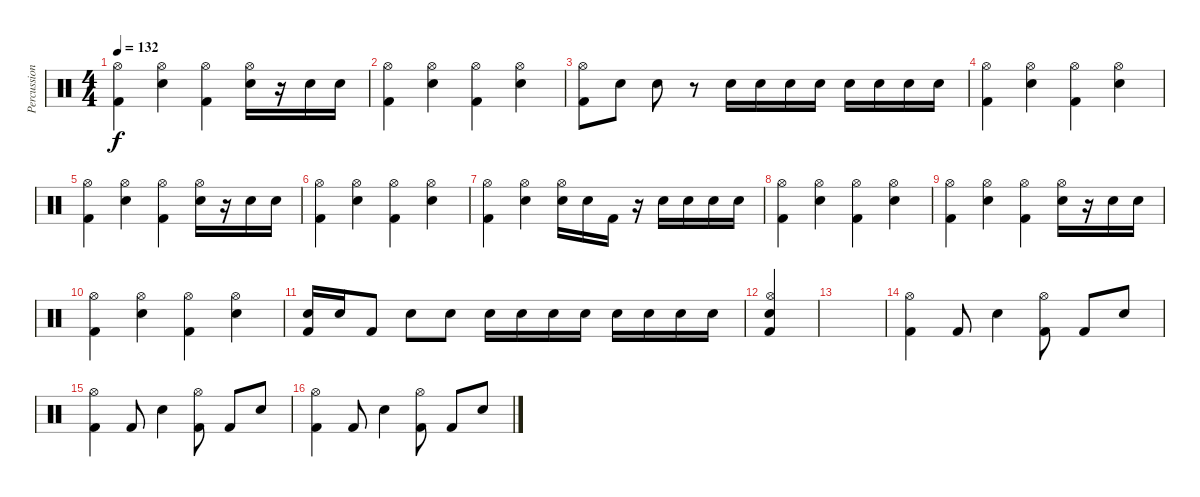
\track ("Percussion" "Percussion") {instrument percussion}
\staff {score}
\articulation defaults
\ts (4 4)
\tempo 132
\clef neutral
\ks c
("Kick (hit) 2" "Hi-Hat (open)").4{dy f} ("Hi-Hat (open)" "Snare (hit) 2").4 ("Kick (hit) 2" "Hi-Hat (open)").4 ("Electric Snare (hit)" "Hi-Hat (open)").16 r.16 "Electric Snare (hit)".16 "Electric Snare (hit)".16 |
("Kick (hit) 2" "Hi-Hat (open)").4 ("Hi-Hat (open)" "Snare (hit) 2").4 ("Kick (hit) 2" "Hi-Hat (open)").4 ("Hi-Hat (open)" "Snare (hit) 2").4 |
("Kick (hit) 2" "Hi-Hat (open)").8 "Snare (hit) 2".8 "Snare (hit) 2".8 r.8 "Electric Snare (hit)".16 "Electric Snare (hit)".16 "Electric Snare (hit)".16 "Electric Snare (hit)".16 "Electric Snare (hit)".16 "Electric Snare (hit)".16 "Electric Snare (hit)".16 "Electric Snare (hit)".16 |
("Kick (hit) 2" "Hi-Hat (open)").4 ("Hi-Hat (open)" "Snare (hit) 2").4 ("Kick (hit) 2" "Hi-Hat (open)").4 ("Hi-Hat (open)" "Snare (hit) 2").4 |
("Kick (hit) 2" "Hi-Hat (open)").4 ("Hi-Hat (open)" "Snare (hit) 2").4 ("Kick (hit) 2" "Hi-Hat (open)").4 ("Electric Snare (hit)" "Hi-Hat (open)").16 r.16 "Electric Snare (hit)".16 "Electric Snare (hit)".16 |
("Kick (hit) 2" "Hi-Hat (open)").4 ("Hi-Hat (open)" "Snare (hit) 2").4 ("Kick (hit) 2" "Hi-Hat (open)").4 ("Hi-Hat (open)" "Snare (hit) 2").4 |
("Kick (hit) 2" "Hi-Hat (open)").4 ("Hi-Hat (open)" "Snare (hit) 2").4 ("Snare (hit) 2" "Hi-Hat (open)").16 "Snare (hit) 2".16 "Kick (hit) 2".16 r.16 "Electric Snare (hit)".16 "Electric Snare (hit)".16 "Electric Snare (hit)".16 "Electric Snare (hit)".16 |
("Kick (hit) 2" "Hi-Hat (open)").4 ("Hi-Hat (open)" "Snare (hit) 2").4 ("Kick (hit) 2" "Hi-Hat (open)").4 ("Hi-Hat (open)" "Snare (hit) 2").4 |
("Kick (hit) 2" "Hi-Hat (open)").4 ("Hi-Hat (open)" "Snare (hit) 2").4 ("Kick (hit) 2" "Hi-Hat (open)").4 ("Electric Snare (hit)" "Hi-Hat (open)").16 r.16 "Electric Snare (hit)".16 "Electric Snare (hit)".16 |
("Kick (hit) 2" "Hi-Hat (open)").4 ("Hi-Hat (open)" "Snare (hit) 2").4 ("Kick (hit) 2" "Hi-Hat (open)").4 ("Hi-Hat (open)" "Snare (hit) 2").4 |
("Snare (hit) 2" "Kick (hit) 2").16 "Snare (hit) 2".16 "Kick (hit) 2".8 "Snare (hit) 2".8 "Snare (hit) 2".8 "Electric Snare (hit)".16 "Electric Snare (hit)".16 "Electric Snare (hit)".16 "Electric Snare (hit)".16 "Electric Snare (hit)".16 "Electric Snare (hit)".16 "Electric Snare (hit)".16 "Electric Snare (hit)".16 |
("Electric Snare (hit)" "Hi-Hat (open)" "Kick (hit) 2").4 |
|
("Kick (hit) 2" "Hi-Hat (open)").4 "Kick (hit) 2".8 "Snare (hit) 2".4 ("Kick (hit) 2" "Hi-Hat (open)").8 "Kick (hit) 2".8 "Snare (hit) 2".8 |
("Kick (hit) 2" "Hi-Hat (open)").4 "Kick (hit) 2".8 "Snare (hit) 2".4 ("Kick (hit) 2" "Hi-Hat (open)").8 "Kick (hit) 2".8 "Snare (hit) 2".8 |
("Kick (hit) 2" "Hi-Hat (open)").4 "Kick (hit) 2".8 "Snare (hit) 2".4 ("Kick (hit) 2" "Hi-Hat (open)").8 "Kick (hit) 2".8 "Snare (hit) 2".8
